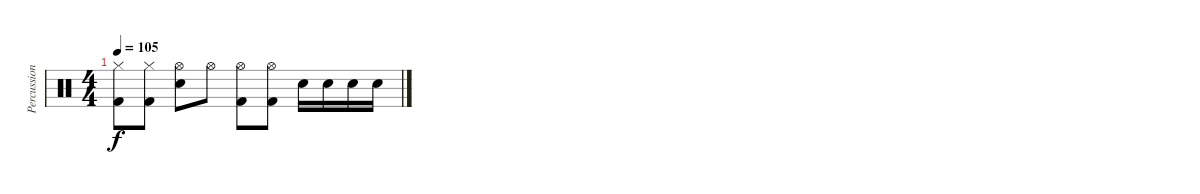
\track ("Percussions" "Percussion") {instrument percussion}
\staff {score}
\articulation defaults
\ts (4 4)
\tempo 105
\clef neutral
\ks c
("Hi-Hat (closed)" "Kick (hit) 2").8{dy f} ("Hi-Hat (closed)" "Kick (hit) 2").8 ("Hi-Hat (open)" "Electric Snare (hit)").8 "Hi-Hat (open)".8 ("Hi-Hat (open)" "Kick (hit) 2").8 ("Hi-Hat (open)" "Kick (hit) 2").8 "Electric Snare (hit)".16 "Electric Snare (hit)".16 "Electric Snare (hit)".16 "Electric Snare (hit)".16
